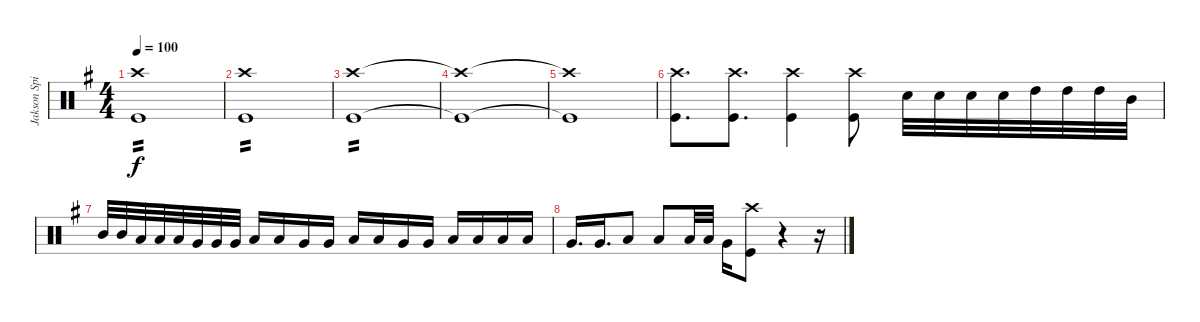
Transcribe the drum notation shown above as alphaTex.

\track ("Jakson Spires Drums" "Jakson Spi") {instrument percussion}
\staff {score}
\articulation defaults
\ts (4 4)
\tempo 100
\clef neutral
\ks g
("Crash high (hit)" "Kick (hit)").1{tp 2 dy f} |
("Crash high (hit)" "Kick (hit)").1{tp 2} |
("Crash high (hit)" "Kick (hit)").1{tp 2} |
("Crash high (hit)"{t} "Kick (hit)"{t}).1 |
("Crash high (hit)"{t} "Kick (hit)"{t}).1 |
("Crash high (hit)" "Kick (hit)").8{d} ("Crash high (hit)" "Kick (hit)").8{d} ("Crash high (hit)" "Kick (hit)").4 ("Crash high (hit)" "Kick (hit)").8 "Snare (hit) 2".32 "Snare (hit) 2".32 "Snare (hit) 2".32 "Snare (hit) 2".32 "High Tom (hit)".32 "High Tom (hit)".32 "High Tom (hit)".32 "Mid Tom (hit)".32 |
"Mid Tom (hit)".32 "Mid Tom (hit)".32 "Low Tom (hit)".32 "Low Tom (hit)".32 "Low Tom (hit)".32 "Very Low Tom (hit)".32 "Very Low Tom (hit)".32 "Very Low Tom (hit)".32 "Low Tom (hit)".16 "Low Tom (hit)".16 "Very Low Tom (hit)".16 "Very Low Tom (hit)".16 "Low Tom (hit)".16 "Low Tom (hit)".16 "Very Low Tom (hit)".16 "Very Low Tom (hit)".16 "Low Floor Tom (hit)".16 "Low Floor Tom (hit)".16 "Low Tom (hit)".16 "Low Tom (hit)".16 |
"Very Low Tom (hit)".16{d} "Very Low Tom (hit)".16{d} "Low Floor Tom (hit)".8 "Low Floor Tom (hit)".8 "Low Tom (hit)".32 "Low Tom (hit)".32 "Very Low Tom (hit)".16 ("Crash high (hit)" "Kick (hit)").8 r.4 r.16
